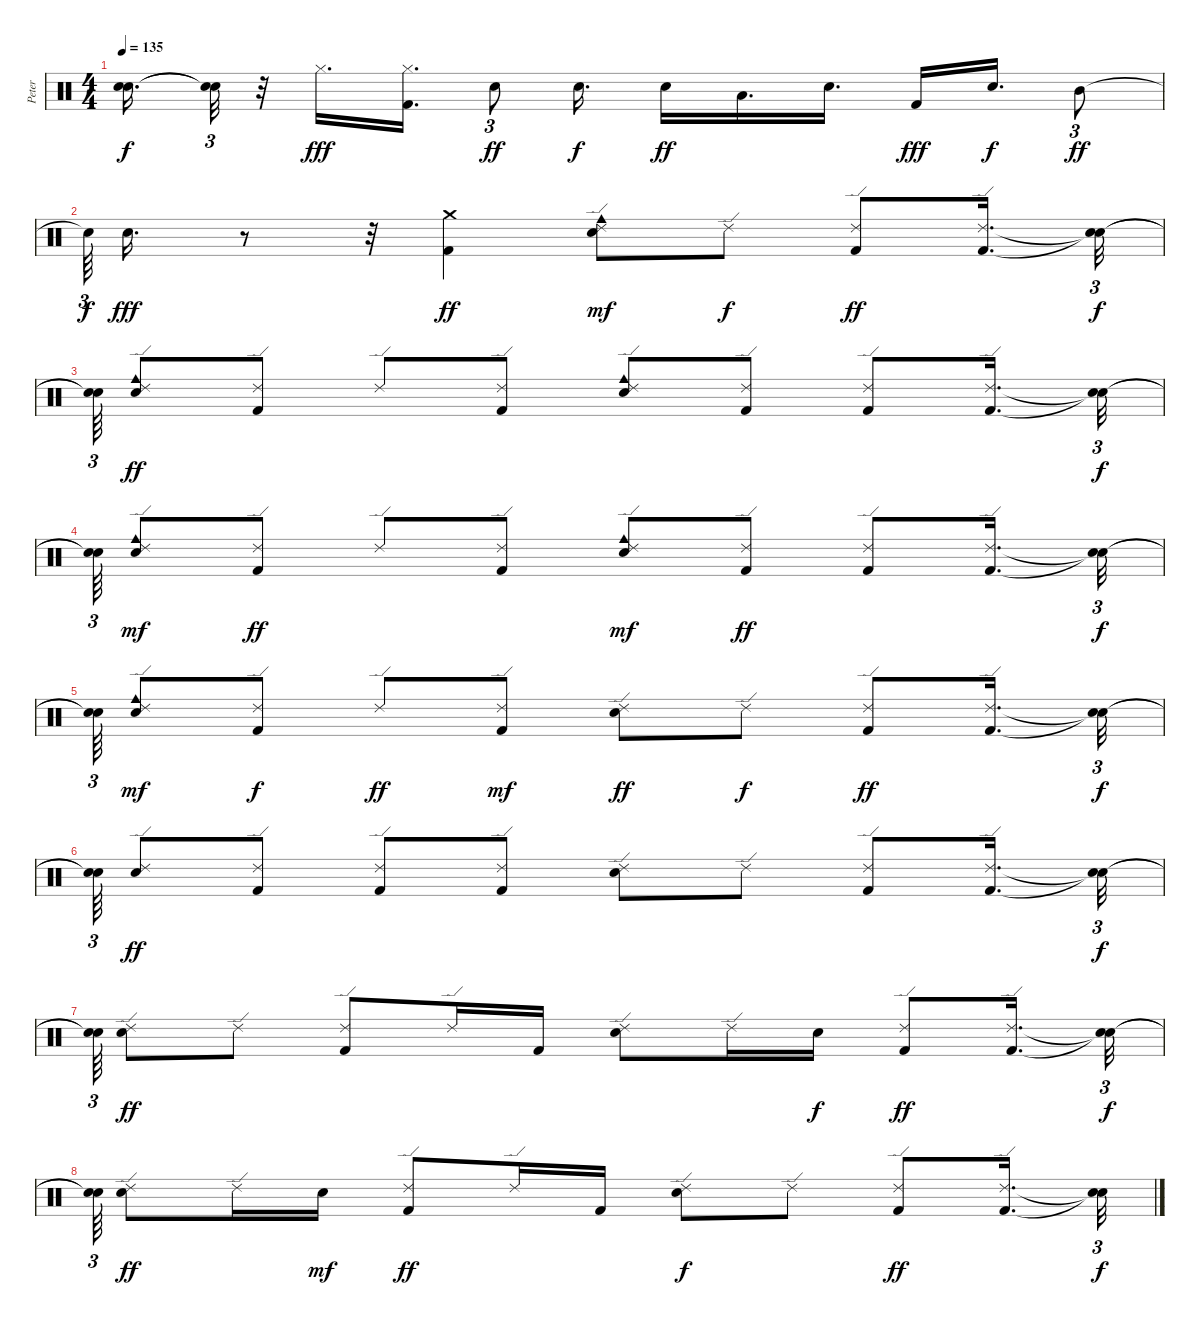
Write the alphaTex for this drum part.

\track ("Peter" "Peter") {instrument percussion}
\staff {score}
\articulation defaults
\ts (4 4)
\tempo 135
\clef neutral
\ks c
("Snare (hit)"{t} "Snare (hit)"{t}).16{d dy f} ("Snare (hit)"{t} "Snare (hit)"{t}).32{tu (3 2)} r.32 "Hi-Hat (closed)".16{d dy fff} ("Kick (hit) 2" "Hi-Hat (closed)").16{d} "Electric Snare (hit)".8{tu (3 2) dy ff} "Electric Snare (hit)".16{d dy f} "Electric Snare (hit)".16{dy ff} "Low Tom (hit)".16{d} "Electric Snare (hit)".16{d} "Kick (hit) 2".16{dy fff} "Electric Snare (hit)".16{d dy f} "Mid Tom (hit)".8{tu (3 2) dy ff} |
"Snare (hit)"{t}.64{tu (3 2) dy f} "Electric Snare (hit)".16{d dy fff} r.8 r.32 ("Kick (hit) 2" "Crash medium (hit)").4{dy ff} ("Cowbell medium (hit)" "Ride (edge) 2" "Electric Snare (hit)").8{dy mf} "Ride (edge) 2".8{dy f} ("Kick (hit) 2" "Ride (edge) 2").8{dy ff} ("Kick (hit) 2" "Ride (edge) 2").16{d} ("Snare (hit)"{t} "Snare (hit)"{t}).32{tu (3 2) dy f} |
("Snare (hit)"{t} "Snare (hit)"{t}).64{tu (3 2)} ("Cowbell medium (hit)" "Electric Snare (hit)" "Ride (edge) 2").8{dy ff} ("Kick (hit) 2" "Ride (edge) 2").8 "Ride (edge) 2".8 ("Ride (edge) 2" "Kick (hit) 2").8 ("Cowbell medium (hit)" "Electric Snare (hit)" "Ride (edge) 2").8 ("Kick (hit) 2" "Ride (edge) 2").8 ("Ride (edge) 2" "Kick (hit) 2").8 ("Kick (hit) 2" "Ride (edge) 2").16{d} ("Snare (hit)"{t} "Snare (hit)"{t}).32{tu (3 2) dy f} |
("Snare (hit)"{t} "Snare (hit)"{t}).64{tu (3 2)} ("Ride (edge) 2" "Cowbell medium (hit)" "Electric Snare (hit)").8{dy mf} ("Kick (hit) 2" "Ride (edge) 2").8{dy ff} "Ride (edge) 2".8 ("Ride (edge) 2" "Kick (hit) 2").8 ("Cowbell medium (hit)" "Electric Snare (hit)" "Ride (edge) 2").8{dy mf} ("Ride (edge) 2" "Kick (hit) 2").8{dy ff} ("Ride (edge) 2" "Kick (hit) 2").8 ("Ride (edge) 2" "Kick (hit) 2").16{d} ("Snare (hit)"{t} "Snare (hit)"{t}).32{tu (3 2) dy f} |
("Snare (hit)"{t} "Snare (hit)"{t}).64{tu (3 2)} ("Ride (edge) 2" "Cowbell medium (hit)" "Electric Snare (hit)").8{dy mf} ("Kick (hit) 2" "Ride (edge) 2").8{dy f} "Ride (edge) 2".8{dy ff} ("Ride (edge) 2" "Kick (hit) 2").8{dy mf} ("Electric Snare (hit)" "Ride (edge) 2").8{dy ff} "Ride (edge) 2".8{dy f} ("Ride (edge) 2" "Kick (hit) 2").8{dy ff} ("Ride (edge) 2" "Kick (hit) 2").16{d} ("Snare (hit)"{t} "Snare (hit)"{t}).32{tu (3 2) dy f} |
("Snare (hit)"{t} "Snare (hit)"{t}).64{tu (3 2)} ("Ride (edge) 2" "Electric Snare (hit)").8{dy ff} ("Ride (edge) 2" "Kick (hit) 2").8 ("Ride (edge) 2" "Kick (hit) 2").8 ("Kick (hit) 2" "Ride (edge) 2").8 ("Ride (edge) 2" "Electric Snare (hit)").8 "Ride (edge) 2".8 ("Kick (hit) 2" "Ride (edge) 2").8 ("Kick (hit) 2" "Ride (edge) 2").16{d} ("Snare (hit)"{t} "Snare (hit)"{t}).32{tu (3 2) dy f} |
("Snare (hit)"{t} "Snare (hit)"{t}).64{tu (3 2)} ("Electric Snare (hit)" "Ride (edge) 2").8{dy ff} "Ride (edge) 2".8 ("Ride (edge) 2" "Kick (hit) 2").8 "Ride (edge) 2".16 "Kick (hit) 2".16 ("Ride (edge) 2" "Electric Snare (hit)").8 "Ride (edge) 2".16 "Electric Snare (hit)".16{dy f} ("Ride (edge) 2" "Kick (hit) 2").8{dy ff} ("Kick (hit) 2" "Ride (edge) 2").16{d} ("Snare (hit)"{t} "Snare (hit)"{t}).32{tu (3 2) dy f} |
("Snare (hit)"{t} "Snare (hit)"{t}).64{tu (3 2)} ("Ride (edge) 2" "Electric Snare (hit)").8{dy ff} "Ride (edge) 2".16 "Electric Snare (hit)".16{dy mf} ("Kick (hit) 2" "Ride (edge) 2").8{dy ff} "Ride (edge) 2".16 "Kick (hit) 2".16 ("Electric Snare (hit)" "Ride (edge) 2").8{dy f} "Ride (edge) 2".8 ("Kick (hit) 2" "Ride (edge) 2").8{dy ff} ("Ride (edge) 2" "Kick (hit) 2").16{d} ("Snare (hit)"{t} "Snare (hit)"{t}).32{tu (3 2) dy f}
